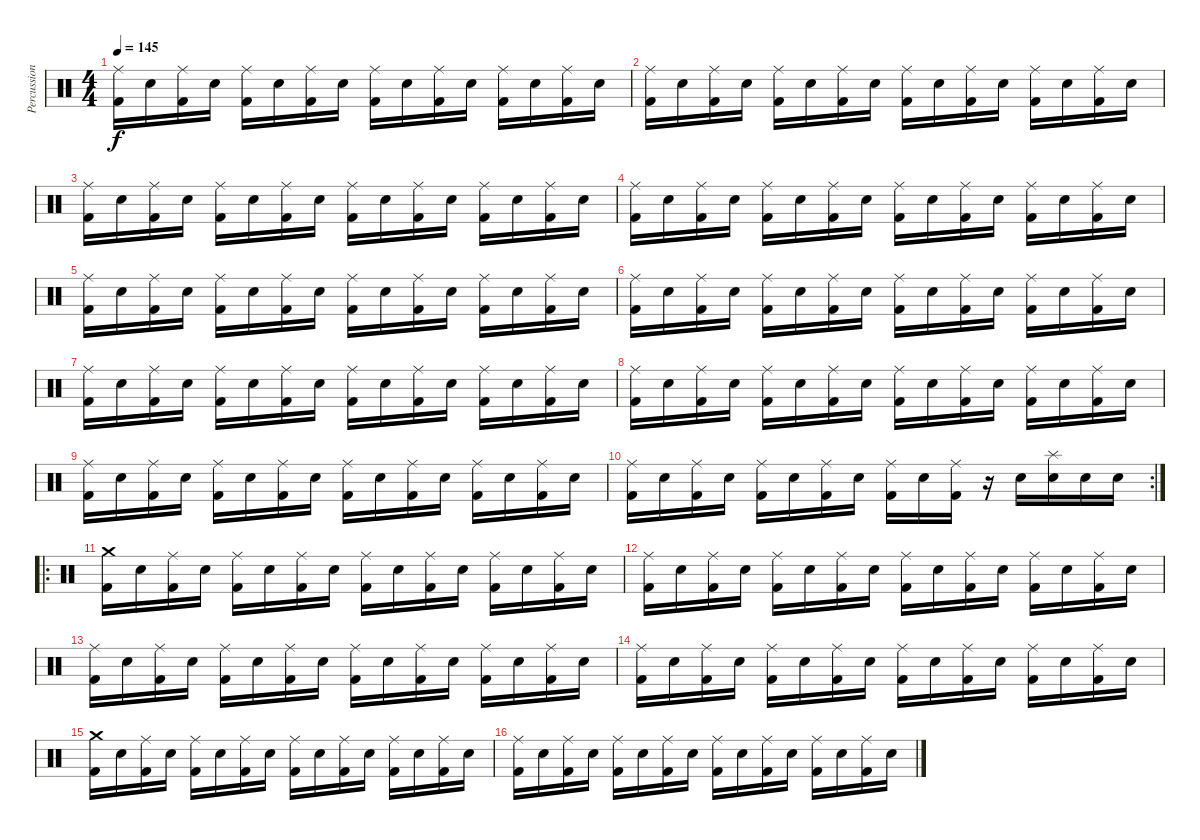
\track ("Percussions" "Percussion") {instrument percussion}
\staff {score}
\articulation defaults
\ts (4 4)
\tempo 145
\clef neutral
\ks c
("Ride (middle)" "Kick (hit) 2").16{dy f} "Snare (hit) 2".16 ("Ride (middle)" "Kick (hit) 2").16 "Snare (hit) 2".16 ("Ride (middle)" "Kick (hit) 2").16 "Snare (hit) 2".16 ("Ride (middle)" "Kick (hit) 2").16 "Snare (hit) 2".16 ("Ride (middle)" "Kick (hit) 2").16 "Snare (hit) 2".16 ("Ride (middle)" "Kick (hit) 2").16 "Snare (hit) 2".16 ("Ride (middle)" "Kick (hit) 2").16 "Snare (hit) 2".16 ("Ride (middle)" "Kick (hit) 2").16 "Snare (hit) 2".16 |
("Ride (middle)" "Kick (hit) 2").16 "Snare (hit) 2".16 ("Ride (middle)" "Kick (hit) 2").16 "Snare (hit) 2".16 ("Ride (middle)" "Kick (hit) 2").16 "Snare (hit) 2".16 ("Ride (middle)" "Kick (hit) 2").16 "Snare (hit) 2".16 ("Ride (middle)" "Kick (hit) 2").16 "Snare (hit) 2".16 ("Ride (middle)" "Kick (hit) 2").16 "Snare (hit) 2".16 ("Ride (middle)" "Kick (hit) 2").16 "Snare (hit) 2".16 ("Ride (middle)" "Kick (hit) 2").16 "Snare (hit) 2".16 |
("Ride (middle)" "Kick (hit) 2").16 "Snare (hit) 2".16 ("Ride (middle)" "Kick (hit) 2").16 "Snare (hit) 2".16 ("Ride (middle)" "Kick (hit) 2").16 "Snare (hit) 2".16 ("Ride (middle)" "Kick (hit) 2").16 "Snare (hit) 2".16 ("Ride (middle)" "Kick (hit) 2").16 "Snare (hit) 2".16 ("Ride (middle)" "Kick (hit) 2").16 "Snare (hit) 2".16 ("Ride (middle)" "Kick (hit) 2").16 "Snare (hit) 2".16 ("Ride (middle)" "Kick (hit) 2").16 "Snare (hit) 2".16 |
("Ride (middle)" "Kick (hit) 2").16 "Snare (hit) 2".16 ("Ride (middle)" "Kick (hit) 2").16 "Snare (hit) 2".16 ("Ride (middle)" "Kick (hit) 2").16 "Snare (hit) 2".16 ("Ride (middle)" "Kick (hit) 2").16 "Snare (hit) 2".16 ("Ride (middle)" "Kick (hit) 2").16 "Snare (hit) 2".16 ("Ride (middle)" "Kick (hit) 2").16 "Snare (hit) 2".16 ("Ride (middle)" "Kick (hit) 2").16 "Snare (hit) 2".16 ("Ride (middle)" "Kick (hit) 2").16 "Snare (hit) 2".16 |
("Ride (middle)" "Kick (hit) 2").16 "Snare (hit) 2".16 ("Ride (middle)" "Kick (hit) 2").16 "Snare (hit) 2".16 ("Ride (middle)" "Kick (hit) 2").16 "Snare (hit) 2".16 ("Ride (middle)" "Kick (hit) 2").16 "Snare (hit) 2".16 ("Ride (middle)" "Kick (hit) 2").16 "Snare (hit) 2".16 ("Ride (middle)" "Kick (hit) 2").16 "Snare (hit) 2".16 ("Ride (middle)" "Kick (hit) 2").16 "Snare (hit) 2".16 ("Ride (middle)" "Kick (hit) 2").16 "Snare (hit) 2".16 |
("Ride (middle)" "Kick (hit) 2").16 "Snare (hit) 2".16 ("Ride (middle)" "Kick (hit) 2").16 "Snare (hit) 2".16 ("Ride (middle)" "Kick (hit) 2").16 "Snare (hit) 2".16 ("Ride (middle)" "Kick (hit) 2").16 "Snare (hit) 2".16 ("Ride (middle)" "Kick (hit) 2").16 "Snare (hit) 2".16 ("Ride (middle)" "Kick (hit) 2").16 "Snare (hit) 2".16 ("Ride (middle)" "Kick (hit) 2").16 "Snare (hit) 2".16 ("Ride (middle)" "Kick (hit) 2").16 "Snare (hit) 2".16 |
("Ride (middle)" "Kick (hit) 2").16 "Snare (hit) 2".16 ("Ride (middle)" "Kick (hit) 2").16 "Snare (hit) 2".16 ("Ride (middle)" "Kick (hit) 2").16 "Snare (hit) 2".16 ("Ride (middle)" "Kick (hit) 2").16 "Snare (hit) 2".16 ("Ride (middle)" "Kick (hit) 2").16 "Snare (hit) 2".16 ("Ride (middle)" "Kick (hit) 2").16 "Snare (hit) 2".16 ("Ride (middle)" "Kick (hit) 2").16 "Snare (hit) 2".16 ("Ride (middle)" "Kick (hit) 2").16 "Snare (hit) 2".16 |
("Ride (middle)" "Kick (hit) 2").16 "Snare (hit) 2".16 ("Ride (middle)" "Kick (hit) 2").16 "Snare (hit) 2".16 ("Ride (middle)" "Kick (hit) 2").16 "Snare (hit) 2".16 ("Ride (middle)" "Kick (hit) 2").16 "Snare (hit) 2".16 ("Ride (middle)" "Kick (hit) 2").16 "Snare (hit) 2".16 ("Ride (middle)" "Kick (hit) 2").16 "Snare (hit) 2".16 ("Ride (middle)" "Kick (hit) 2").16 "Snare (hit) 2".16 ("Ride (middle)" "Kick (hit) 2").16 "Snare (hit) 2".16 |
("Ride (middle)" "Kick (hit) 2").16 "Snare (hit) 2".16 ("Ride (middle)" "Kick (hit) 2").16 "Snare (hit) 2".16 ("Ride (middle)" "Kick (hit) 2").16 "Snare (hit) 2".16 ("Ride (middle)" "Kick (hit) 2").16 "Snare (hit) 2".16 ("Ride (middle)" "Kick (hit) 2").16 "Snare (hit) 2".16 ("Ride (middle)" "Kick (hit) 2").16 "Snare (hit) 2".16 ("Ride (middle)" "Kick (hit) 2").16 "Snare (hit) 2".16 ("Ride (middle)" "Kick (hit) 2").16 "Snare (hit) 2".16 |
\rc 2
("Ride (middle)" "Kick (hit) 2").16 "Snare (hit) 2".16 ("Ride (middle)" "Kick (hit) 2").16 "Snare (hit) 2".16 ("Ride (middle)" "Kick (hit) 2").16 "Snare (hit) 2".16 ("Ride (middle)" "Kick (hit) 2").16 "Snare (hit) 2".16 ("Ride (middle)" "Kick (hit) 2").16 "Snare (hit) 2".16 ("Ride (middle)" "Kick (hit) 2").16 r.16 "Snare (hit) 2".16 ("Splash (hit)" "Snare (hit) 2").16 "Snare (hit) 2".16 "Snare (hit) 2".16 |
\ro
("Crash medium (hit)" "Kick (hit) 2").16 "Snare (hit) 2".16 ("Ride (middle)" "Kick (hit) 2").16 "Snare (hit) 2".16 ("Ride (middle)" "Kick (hit) 2").16 "Snare (hit) 2".16 ("Ride (middle)" "Kick (hit) 2").16 "Snare (hit) 2".16 ("Ride (middle)" "Kick (hit) 2").16 "Snare (hit) 2".16 ("Ride (middle)" "Kick (hit) 2").16 "Snare (hit) 2".16 ("Ride (middle)" "Kick (hit) 2").16 "Snare (hit) 2".16 ("Ride (middle)" "Kick (hit) 2").16 "Snare (hit) 2".16 |
("Ride (middle)" "Kick (hit) 2").16 "Snare (hit) 2".16 ("Ride (middle)" "Kick (hit) 2").16 "Snare (hit) 2".16 ("Ride (middle)" "Kick (hit) 2").16 "Snare (hit) 2".16 ("Ride (middle)" "Kick (hit) 2").16 "Snare (hit) 2".16 ("Ride (middle)" "Kick (hit) 2").16 "Snare (hit) 2".16 ("Ride (middle)" "Kick (hit) 2").16 "Snare (hit) 2".16 ("Ride (middle)" "Kick (hit) 2").16 "Snare (hit) 2".16 ("Ride (middle)" "Kick (hit) 2").16 "Snare (hit) 2".16 |
("Ride (middle)" "Kick (hit) 2").16 "Snare (hit) 2".16 ("Ride (middle)" "Kick (hit) 2").16 "Snare (hit) 2".16 ("Ride (middle)" "Kick (hit) 2").16 "Snare (hit) 2".16 ("Ride (middle)" "Kick (hit) 2").16 "Snare (hit) 2".16 ("Ride (middle)" "Kick (hit) 2").16 "Snare (hit) 2".16 ("Ride (middle)" "Kick (hit) 2").16 "Snare (hit) 2".16 ("Ride (middle)" "Kick (hit) 2").16 "Snare (hit) 2".16 ("Ride (middle)" "Kick (hit) 2").16 "Snare (hit) 2".16 |
("Ride (middle)" "Kick (hit) 2").16 "Snare (hit) 2".16 ("Ride (middle)" "Kick (hit) 2").16 "Snare (hit) 2".16 ("Ride (middle)" "Kick (hit) 2").16 "Snare (hit) 2".16 ("Ride (middle)" "Kick (hit) 2").16 "Snare (hit) 2".16 ("Ride (middle)" "Kick (hit) 2").16 "Snare (hit) 2".16 ("Ride (middle)" "Kick (hit) 2").16 "Snare (hit) 2".16 ("Ride (middle)" "Kick (hit) 2").16 "Snare (hit) 2".16 ("Ride (middle)" "Kick (hit) 2").16 "Snare (hit) 2".16 |
("Crash medium (hit)" "Kick (hit) 2").16 "Snare (hit) 2".16 ("Ride (middle)" "Kick (hit) 2").16 "Snare (hit) 2".16 ("Ride (middle)" "Kick (hit) 2").16 "Snare (hit) 2".16 ("Ride (middle)" "Kick (hit) 2").16 "Snare (hit) 2".16 ("Ride (middle)" "Kick (hit) 2").16 "Snare (hit) 2".16 ("Ride (middle)" "Kick (hit) 2").16 "Snare (hit) 2".16 ("Ride (middle)" "Kick (hit) 2").16 "Snare (hit) 2".16 ("Ride (middle)" "Kick (hit) 2").16 "Snare (hit) 2".16 |
("Ride (middle)" "Kick (hit) 2").16 "Snare (hit) 2".16 ("Ride (middle)" "Kick (hit) 2").16 "Snare (hit) 2".16 ("Ride (middle)" "Kick (hit) 2").16 "Snare (hit) 2".16 ("Ride (middle)" "Kick (hit) 2").16 "Snare (hit) 2".16 ("Ride (middle)" "Kick (hit) 2").16 "Snare (hit) 2".16 ("Ride (middle)" "Kick (hit) 2").16 "Snare (hit) 2".16 ("Ride (middle)" "Kick (hit) 2").16 "Snare (hit) 2".16 ("Ride (middle)" "Kick (hit) 2").16 "Snare (hit) 2".16
